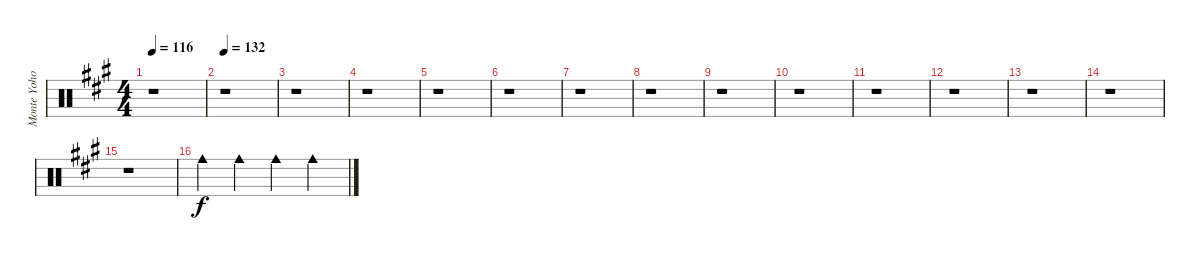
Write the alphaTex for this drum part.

\track ("Monte Yoho Cow Bell" "Monte Yoho") {instrument percussion}
\staff {score}
\articulation defaults
\ts (4 4)
\tempo 116
\clef neutral
\ks a
r.1{dy f} |
\tempo 132
r.1 |
r.1 |
r.1 |
r.1 |
r.1 |
r.1 |
r.1 |
r.1 |
r.1 |
r.1 |
r.1 |
r.1 |
r.1 |
r.1 |
"Cowbell medium (hit)".4 "Cowbell medium (hit)".4 "Cowbell medium (hit)".4 "Cowbell medium (hit)".4
